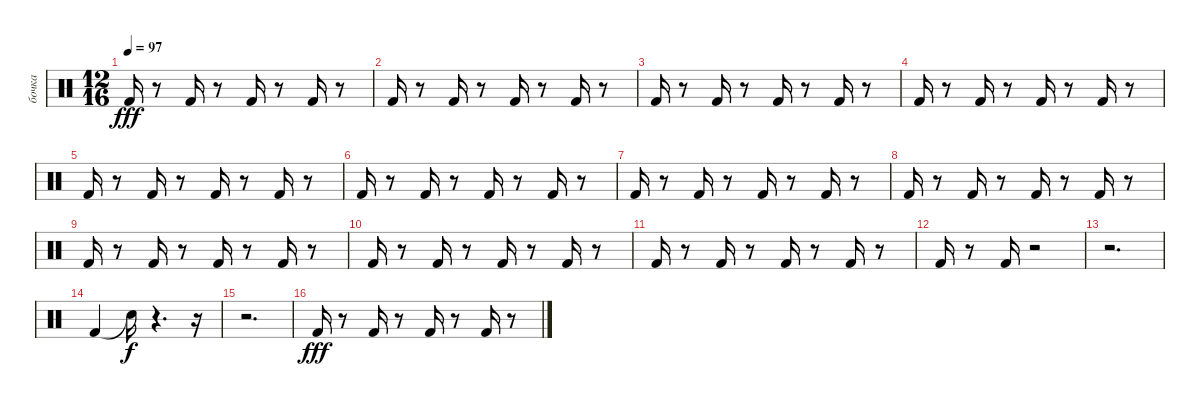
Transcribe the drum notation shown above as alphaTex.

\track ("бочка" "бочка") {instrument percussion}
\staff {score}
\articulation defaults
\ts (12 16)
\tempo 97
\clef neutral
\ks c "Kick (hit) 2".16{dy fff}
r.8 "Kick (hit) 2".16 r.8 "Kick (hit) 2".16 r.8 "Kick (hit) 2".16 r.8 |
"Kick (hit) 2".16 r.8 "Kick (hit) 2".16 r.8 "Kick (hit) 2".16 r.8 "Kick (hit) 2".16 r.8 |
"Kick (hit) 2".16 r.8 "Kick (hit) 2".16 r.8 "Kick (hit) 2".16 r.8 "Kick (hit) 2".16 r.8 |
"Kick (hit) 2".16 r.8 "Kick (hit) 2".16 r.8 "Kick (hit) 2".16 r.8 "Kick (hit) 2".16 r.8 |
"Kick (hit) 2".16 r.8 "Kick (hit) 2".16 r.8 "Kick (hit) 2".16 r.8 "Kick (hit) 2".16 r.8 |
"Kick (hit) 2".16 r.8 "Kick (hit) 2".16 r.8 "Kick (hit) 2".16 r.8 "Kick (hit) 2".16 r.8 |
"Kick (hit) 2".16 r.8 "Kick (hit) 2".16 r.8 "Kick (hit) 2".16 r.8 "Kick (hit) 2".16 r.8 |
"Kick (hit) 2".16 r.8 "Kick (hit) 2".16 r.8 "Kick (hit) 2".16 r.8 "Kick (hit) 2".16 r.8 |
"Kick (hit) 2".16 r.8 "Kick (hit) 2".16 r.8 "Kick (hit) 2".16 r.8 "Kick (hit) 2".16 r.8 |
"Kick (hit) 2".16 r.8 "Kick (hit) 2".16 r.8 "Kick (hit) 2".16 r.8 "Kick (hit) 2".16 r.8 |
"Kick (hit) 2".16 r.8 "Kick (hit) 2".16 r.8 "Kick (hit) 2".16 r.8 "Kick (hit) 2".16 r.8 |
"Kick (hit) 2".16 r.8 "Kick (hit) 2".16 r.2 |
r.2{d} |
"Kick (hit) 2".4 "Snare (hit)"{t}.16{dy f} r.4{d} r.16 |
r.2{d} |
"Kick (hit) 2".16{dy fff} r.8 "Kick (hit) 2".16 r.8 "Kick (hit) 2".16 r.8 "Kick (hit) 2".16 r.8
